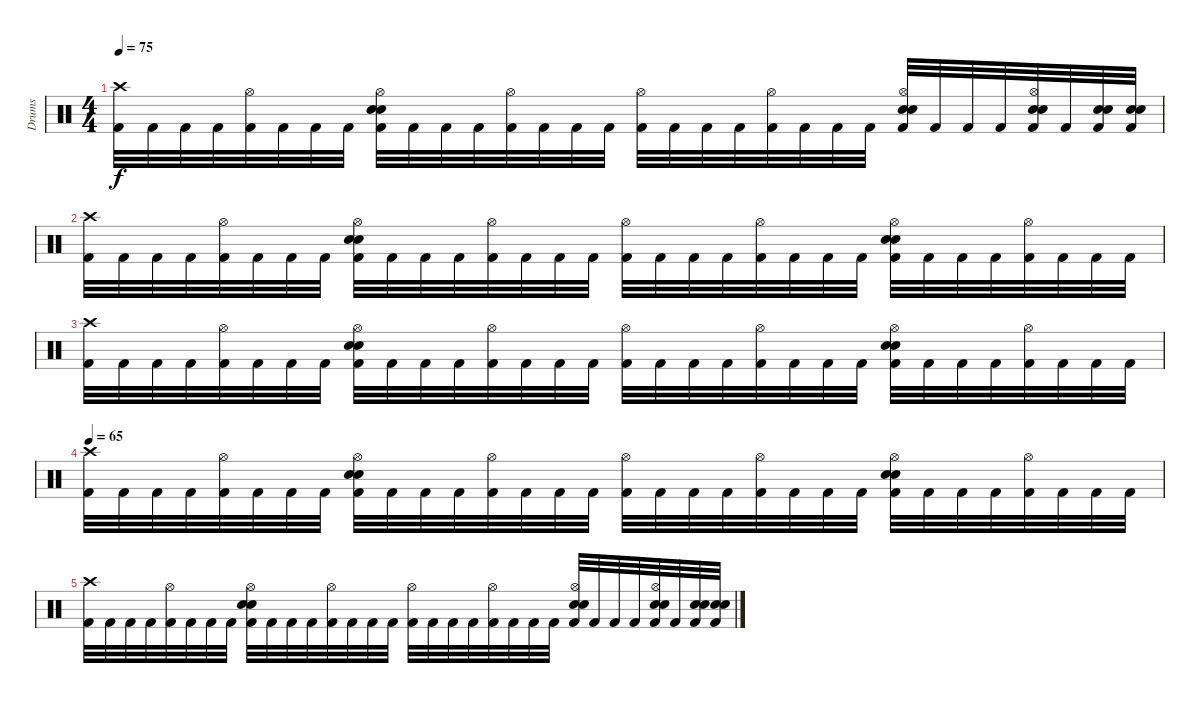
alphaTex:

\track ("Drums" "Drums") {instrument percussion}
\staff {score}
\articulation defaults
\ts (4 4)
\tempo 75
\clef neutral
\ks c
("Crash high (hit)" "Kick (hit) 2").32{dy f} "Kick (hit) 2".32 "Kick (hit) 2".32 "Kick (hit) 2".32 ("Hi-Hat (open)" "Kick (hit) 2").32 "Kick (hit) 2".32 "Kick (hit) 2".32 "Kick (hit) 2".32 ("Hi-Hat (open)" "Snare (hit) 2" "Snare (hit) 2" "Kick (hit) 2").32 "Kick (hit) 2".32 "Kick (hit) 2".32 "Kick (hit) 2".32 ("Hi-Hat (open)" "Kick (hit) 2").32 "Kick (hit) 2".32 "Kick (hit) 2".32 "Kick (hit) 2".32 ("Hi-Hat (open)" "Kick (hit) 2").32 "Kick (hit) 2".32 "Kick (hit) 2".32 "Kick (hit) 2".32 ("Hi-Hat (open)" "Kick (hit) 2").32 "Kick (hit) 2".32 "Kick (hit) 2".32 "Kick (hit) 2".32 ("Hi-Hat (open)" "Snare (hit) 2" "Snare (hit) 2" "Kick (hit) 2").32 "Kick (hit) 2".32 "Kick (hit) 2".32 "Kick (hit) 2".32 ("Hi-Hat (open)" "Snare (hit) 2" "Snare (hit) 2" "Kick (hit) 2").32 "Kick (hit) 2".32 ("Snare (hit) 2" "Snare (hit) 2" "Kick (hit) 2").32 ("Snare (hit) 2" "Snare (hit) 2" "Kick (hit) 2").32 |
("Crash high (hit)" "Kick (hit) 2").32{volume 0} "Kick (hit) 2".32 "Kick (hit) 2".32 "Kick (hit) 2".32 ("Hi-Hat (open)" "Kick (hit) 2").32 "Kick (hit) 2".32 "Kick (hit) 2".32 "Kick (hit) 2".32 ("Hi-Hat (open)" "Snare (hit) 2" "Snare (hit) 2" "Kick (hit) 2").32 "Kick (hit) 2".32 "Kick (hit) 2".32 "Kick (hit) 2".32 ("Hi-Hat (open)" "Kick (hit) 2").32 "Kick (hit) 2".32 "Kick (hit) 2".32 "Kick (hit) 2".32 ("Hi-Hat (open)" "Kick (hit) 2").32 "Kick (hit) 2".32 "Kick (hit) 2".32 "Kick (hit) 2".32 ("Hi-Hat (open)" "Kick (hit) 2").32 "Kick (hit) 2".32 "Kick (hit) 2".32 "Kick (hit) 2".32 ("Hi-Hat (open)" "Snare (hit) 2" "Snare (hit) 2" "Kick (hit) 2").32 "Kick (hit) 2".32 "Kick (hit) 2".32 "Kick (hit) 2".32 ("Hi-Hat (open)" "Kick (hit) 2").32 "Kick (hit) 2".32 "Kick (hit) 2".32 "Kick (hit) 2".32 |
("Crash high (hit)" "Kick (hit) 2").32 "Kick (hit) 2".32 "Kick (hit) 2".32 "Kick (hit) 2".32 ("Hi-Hat (open)" "Kick (hit) 2").32 "Kick (hit) 2".32 "Kick (hit) 2".32 "Kick (hit) 2".32 ("Hi-Hat (open)" "Snare (hit) 2" "Snare (hit) 2" "Kick (hit) 2").32 "Kick (hit) 2".32 "Kick (hit) 2".32 "Kick (hit) 2".32 ("Hi-Hat (open)" "Kick (hit) 2").32 "Kick (hit) 2".32 "Kick (hit) 2".32 "Kick (hit) 2".32 ("Hi-Hat (open)" "Kick (hit) 2").32 "Kick (hit) 2".32 "Kick (hit) 2".32 "Kick (hit) 2".32 ("Hi-Hat (open)" "Kick (hit) 2").32 "Kick (hit) 2".32 "Kick (hit) 2".32 "Kick (hit) 2".32 ("Hi-Hat (open)" "Snare (hit) 2" "Snare (hit) 2" "Kick (hit) 2").32 "Kick (hit) 2".32 "Kick (hit) 2".32 "Kick (hit) 2".32 ("Hi-Hat (open)" "Kick (hit) 2").32 "Kick (hit) 2".32 "Kick (hit) 2".32 "Kick (hit) 2".32 |
\tempo 65
("Crash high (hit)" "Kick (hit) 2").32 "Kick (hit) 2".32 "Kick (hit) 2".32 "Kick (hit) 2".32 ("Hi-Hat (open)" "Kick (hit) 2").32 "Kick (hit) 2".32 "Kick (hit) 2".32 "Kick (hit) 2".32 ("Hi-Hat (open)" "Snare (hit) 2" "Snare (hit) 2" "Kick (hit) 2").32 "Kick (hit) 2".32 "Kick (hit) 2".32 "Kick (hit) 2".32 ("Hi-Hat (open)" "Kick (hit) 2").32 "Kick (hit) 2".32 "Kick (hit) 2".32 "Kick (hit) 2".32 ("Hi-Hat (open)" "Kick (hit) 2").32 "Kick (hit) 2".32 "Kick (hit) 2".32 "Kick (hit) 2".32 ("Hi-Hat (open)" "Kick (hit) 2").32 "Kick (hit) 2".32 "Kick (hit) 2".32 "Kick (hit) 2".32 ("Hi-Hat (open)" "Snare (hit) 2" "Snare (hit) 2" "Kick (hit) 2").32 "Kick (hit) 2".32 "Kick (hit) 2".32 "Kick (hit) 2".32 ("Hi-Hat (open)" "Kick (hit) 2").32 "Kick (hit) 2".32 "Kick (hit) 2".32 "Kick (hit) 2".32 |
("Crash high (hit)" "Kick (hit) 2").32 "Kick (hit) 2".32 "Kick (hit) 2".32 "Kick (hit) 2".32 ("Hi-Hat (open)" "Kick (hit) 2").32 "Kick (hit) 2".32 "Kick (hit) 2".32 "Kick (hit) 2".32 ("Hi-Hat (open)" "Snare (hit) 2" "Snare (hit) 2" "Kick (hit) 2").32 "Kick (hit) 2".32 "Kick (hit) 2".32 "Kick (hit) 2".32 ("Hi-Hat (open)" "Kick (hit) 2").32 "Kick (hit) 2".32 "Kick (hit) 2".32 "Kick (hit) 2".32 ("Hi-Hat (open)" "Kick (hit) 2").32 "Kick (hit) 2".32 "Kick (hit) 2".32 "Kick (hit) 2".32 ("Hi-Hat (open)" "Kick (hit) 2").32 "Kick (hit) 2".32 "Kick (hit) 2".32 "Kick (hit) 2".32 ("Hi-Hat (open)" "Snare (hit) 2" "Snare (hit) 2" "Kick (hit) 2").32 "Kick (hit) 2".32 "Kick (hit) 2".32 "Kick (hit) 2".32 ("Hi-Hat (open)" "Snare (hit) 2" "Snare (hit) 2" "Kick (hit) 2").32 "Kick (hit) 2".32 ("Snare (hit) 2" "Snare (hit) 2" "Kick (hit) 2").32 ("Snare (hit) 2" "Snare (hit) 2" "Kick (hit) 2").32
